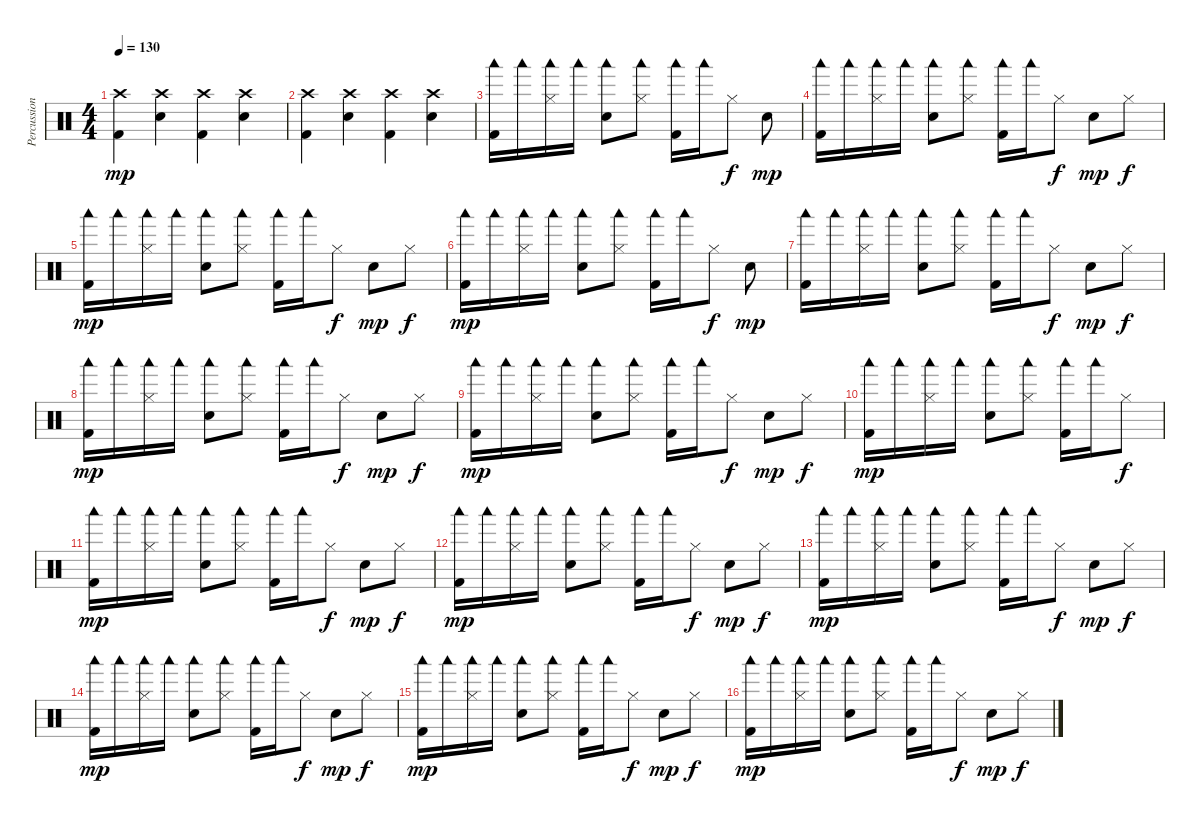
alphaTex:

\track ("Percussion" "Percussion") {instrument percussion}
\staff {score}
\articulation defaults
\ts (4 4)
\tempo 130
\clef neutral
\ks c
("Crash high (hit)" "Kick (hit) 2").4{dy mp} ("Crash high (hit)" "Snare (hit) 2").4 ("Crash high (hit)" "Kick (hit) 2").4 ("Crash high (hit)" "Snare (hit) 2").4 |
("Crash high (hit)" "Kick (hit) 2").4 ("Crash high (hit)" "Snare (hit) 2").4 ("Crash high (hit)" "Kick (hit) 2").4 ("Crash high (hit)" "Snare (hit) 2").4 |
("Woodblock low (hit)" "Kick (hit) 2").16 "Woodblock low (hit)".16 ("Woodblock low (hit)" "Hi-Hat (closed)").16 "Woodblock low (hit)".16 ("Woodblock low (hit)" "Electric Snare (hit)").8 ("Woodblock low (hit)" "Hi-Hat (closed)").8 ("Woodblock low (hit)" "Kick (hit) 2").16 "Woodblock low (hit)".16 "Hi-Hat (closed)".8{dy f} "Electric Snare (hit)".8{dy mp} |
("Woodblock low (hit)" "Kick (hit) 2").16 "Woodblock low (hit)".16 ("Woodblock low (hit)" "Hi-Hat (closed)").16 "Woodblock low (hit)".16 ("Woodblock low (hit)" "Electric Snare (hit)").8 ("Woodblock low (hit)" "Hi-Hat (closed)").8 ("Woodblock low (hit)" "Kick (hit) 2").16 "Woodblock low (hit)".16 "Hi-Hat (closed)".8{dy f} "Electric Snare (hit)".8{dy mp} "Hi-Hat (closed)".8{dy f} |
("Woodblock low (hit)" "Kick (hit) 2").16{dy mp} "Woodblock low (hit)".16 ("Woodblock low (hit)" "Hi-Hat (closed)").16 "Woodblock low (hit)".16 ("Woodblock low (hit)" "Electric Snare (hit)").8 ("Woodblock low (hit)" "Hi-Hat (closed)").8 ("Woodblock low (hit)" "Kick (hit) 2").16 "Woodblock low (hit)".16 "Hi-Hat (closed)".8{dy f} "Electric Snare (hit)".8{dy mp} "Hi-Hat (closed)".8{dy f} |
("Woodblock low (hit)" "Kick (hit) 2").16{dy mp} "Woodblock low (hit)".16 ("Woodblock low (hit)" "Hi-Hat (closed)").16 "Woodblock low (hit)".16 ("Woodblock low (hit)" "Electric Snare (hit)").8 ("Woodblock low (hit)" "Hi-Hat (closed)").8 ("Woodblock low (hit)" "Kick (hit) 2").16 "Woodblock low (hit)".16 "Hi-Hat (closed)".8{dy f} "Electric Snare (hit)".8{dy mp} |
("Woodblock low (hit)" "Kick (hit) 2").16 "Woodblock low (hit)".16 ("Woodblock low (hit)" "Hi-Hat (closed)").16 "Woodblock low (hit)".16 ("Woodblock low (hit)" "Electric Snare (hit)").8 ("Woodblock low (hit)" "Hi-Hat (closed)").8 ("Woodblock low (hit)" "Kick (hit) 2").16 "Woodblock low (hit)".16 "Hi-Hat (closed)".8{dy f} "Electric Snare (hit)".8{dy mp} "Hi-Hat (closed)".8{dy f} |
("Woodblock low (hit)" "Kick (hit) 2").16{dy mp} "Woodblock low (hit)".16 ("Woodblock low (hit)" "Hi-Hat (closed)").16 "Woodblock low (hit)".16 ("Woodblock low (hit)" "Electric Snare (hit)").8 ("Woodblock low (hit)" "Hi-Hat (closed)").8 ("Woodblock low (hit)" "Kick (hit) 2").16 "Woodblock low (hit)".16 "Hi-Hat (closed)".8{dy f} "Electric Snare (hit)".8{dy mp} "Hi-Hat (closed)".8{dy f} |
("Woodblock low (hit)" "Kick (hit) 2").16{dy mp} "Woodblock low (hit)".16 ("Woodblock low (hit)" "Hi-Hat (closed)").16 "Woodblock low (hit)".16 ("Woodblock low (hit)" "Electric Snare (hit)").8 ("Woodblock low (hit)" "Hi-Hat (closed)").8 ("Woodblock low (hit)" "Kick (hit) 2").16 "Woodblock low (hit)".16 "Hi-Hat (closed)".8{dy f} "Electric Snare (hit)".8{dy mp} "Hi-Hat (closed)".8{dy f} |
("Woodblock low (hit)" "Kick (hit) 2").16{dy mp} "Woodblock low (hit)".16 ("Woodblock low (hit)" "Hi-Hat (closed)").16 "Woodblock low (hit)".16 ("Woodblock low (hit)" "Electric Snare (hit)").8 ("Woodblock low (hit)" "Hi-Hat (closed)").8 ("Woodblock low (hit)" "Kick (hit) 2").16 "Woodblock low (hit)".16 "Hi-Hat (closed)".8{dy f} |
("Woodblock low (hit)" "Kick (hit) 2").16{dy mp} "Woodblock low (hit)".16 ("Woodblock low (hit)" "Hi-Hat (closed)").16 "Woodblock low (hit)".16 ("Woodblock low (hit)" "Electric Snare (hit)").8 ("Woodblock low (hit)" "Hi-Hat (closed)").8 ("Woodblock low (hit)" "Kick (hit) 2").16 "Woodblock low (hit)".16 "Hi-Hat (closed)".8{dy f} "Electric Snare (hit)".8{dy mp} "Hi-Hat (closed)".8{dy f} |
("Woodblock low (hit)" "Kick (hit) 2").16{dy mp} "Woodblock low (hit)".16 ("Woodblock low (hit)" "Hi-Hat (closed)").16 "Woodblock low (hit)".16 ("Woodblock low (hit)" "Electric Snare (hit)").8 ("Woodblock low (hit)" "Hi-Hat (closed)").8 ("Woodblock low (hit)" "Kick (hit) 2").16 "Woodblock low (hit)".16 "Hi-Hat (closed)".8{dy f} "Electric Snare (hit)".8{dy mp} "Hi-Hat (closed)".8{dy f} |
("Woodblock low (hit)" "Kick (hit) 2").16{dy mp} "Woodblock low (hit)".16 ("Woodblock low (hit)" "Hi-Hat (closed)").16 "Woodblock low (hit)".16 ("Woodblock low (hit)" "Electric Snare (hit)").8 ("Woodblock low (hit)" "Hi-Hat (closed)").8 ("Woodblock low (hit)" "Kick (hit) 2").16 "Woodblock low (hit)".16 "Hi-Hat (closed)".8{dy f} "Electric Snare (hit)".8{dy mp} "Hi-Hat (closed)".8{dy f} |
("Woodblock low (hit)" "Kick (hit) 2").16{dy mp} "Woodblock low (hit)".16 ("Woodblock low (hit)" "Hi-Hat (closed)").16 "Woodblock low (hit)".16 ("Woodblock low (hit)" "Electric Snare (hit)").8 ("Woodblock low (hit)" "Hi-Hat (closed)").8 ("Woodblock low (hit)" "Kick (hit) 2").16 "Woodblock low (hit)".16 "Hi-Hat (closed)".8{dy f} "Electric Snare (hit)".8{dy mp} "Hi-Hat (closed)".8{dy f} |
("Woodblock low (hit)" "Kick (hit) 2").16{dy mp} "Woodblock low (hit)".16 ("Woodblock low (hit)" "Hi-Hat (closed)").16 "Woodblock low (hit)".16 ("Woodblock low (hit)" "Electric Snare (hit)").8 ("Woodblock low (hit)" "Hi-Hat (closed)").8 ("Woodblock low (hit)" "Kick (hit) 2").16 "Woodblock low (hit)".16 "Hi-Hat (closed)".8{dy f} "Electric Snare (hit)".8{dy mp} "Hi-Hat (closed)".8{dy f} |
("Woodblock low (hit)" "Kick (hit) 2").16{dy mp} "Woodblock low (hit)".16 ("Woodblock low (hit)" "Hi-Hat (closed)").16 "Woodblock low (hit)".16 ("Woodblock low (hit)" "Electric Snare (hit)").8 ("Woodblock low (hit)" "Hi-Hat (closed)").8 ("Woodblock low (hit)" "Kick (hit) 2").16 "Woodblock low (hit)".16 "Hi-Hat (closed)".8{dy f} "Electric Snare (hit)".8{dy mp} "Hi-Hat (closed)".8{dy f}
